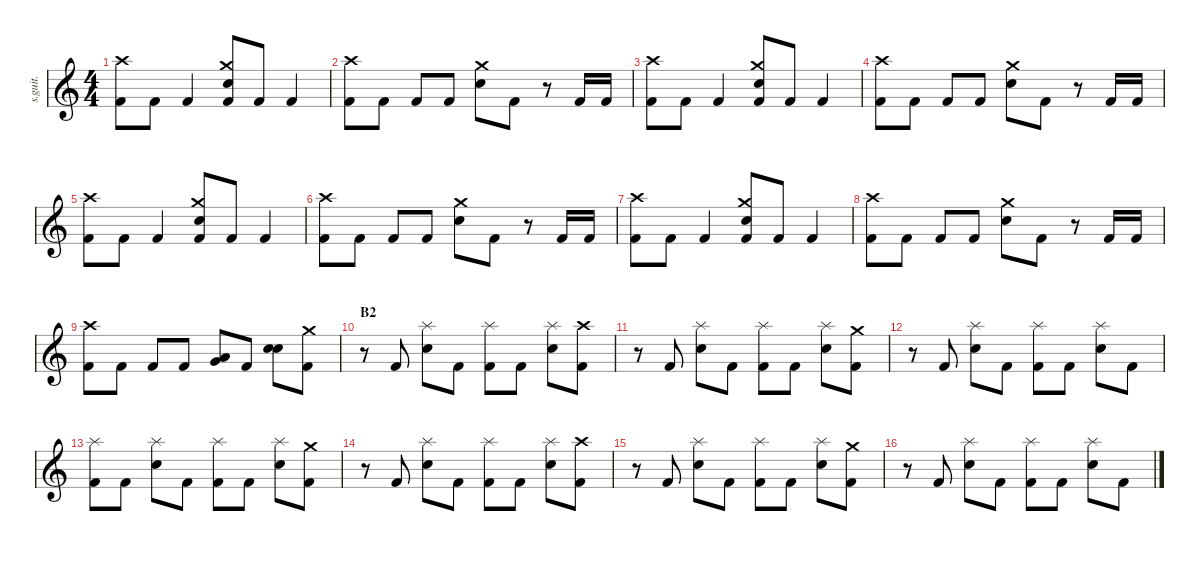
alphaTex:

\defaultSystemsLayout 4
\hideDynamics
\bracketExtendMode nobrackets
\track ("Batterie" "s.guit.") {instrument percussion}
\staff {score}
\articulation defaults
\ts (4 4)
\tempo (170 hide)
\clef g2
\ks c
("Crash high (hit)" "Kick (hit) 2").8{lyrics (0 "") lyrics (1 "") lyrics (2 "") lyrics (3 "") lyrics (4 "") dy f} "Kick (hit) 2".8{lyrics (0 "") lyrics (1 "") lyrics (2 "") lyrics (3 "") lyrics (4 "") dy fff} "Kick (hit) 2".4{lyrics (0 "") lyrics (1 "") lyrics (2 "") lyrics (3 "") lyrics (4 "")} ("Crash medium (hit)" "Electric Snare (hit)" "Kick (hit) 2").8{lyrics (0 "") lyrics (1 "") lyrics (2 "") lyrics (3 "") lyrics (4 "") dy f} "Kick (hit) 2".8{lyrics (0 "") lyrics (1 "") lyrics (2 "") lyrics (3 "") lyrics (4 "") dy fff} "Kick (hit) 2".4{lyrics (0 "") lyrics (1 "") lyrics (2 "") lyrics (3 "") lyrics (4 "")} |
("Crash high (hit)" "Kick (hit) 2").8{lyrics (0 "") lyrics (1 "") lyrics (2 "") lyrics (3 "") lyrics (4 "") dy f} "Kick (hit) 2".8{lyrics (0 "") lyrics (1 "") lyrics (2 "") lyrics (3 "") lyrics (4 "") dy fff} "Kick (hit) 2".8{lyrics (0 "") lyrics (1 "") lyrics (2 "") lyrics (3 "") lyrics (4 "")} "Kick (hit) 2".8{lyrics (0 "") lyrics (1 "") lyrics (2 "") lyrics (3 "") lyrics (4 "")} ("Crash medium (hit)" "Electric Snare (hit)").8{lyrics (0 "") lyrics (1 "") lyrics (2 "") lyrics (3 "") lyrics (4 "") dy f} "Kick (hit) 2".8{lyrics (0 "") lyrics (1 "") lyrics (2 "") lyrics (3 "") lyrics (4 "") dy fff} r.8 "Kick (hit) 2".16{lyrics (0 "") lyrics (1 "") lyrics (2 "") lyrics (3 "") lyrics (4 "")} "Kick (hit) 2".16{lyrics (0 "") lyrics (1 "") lyrics (2 "") lyrics (3 "") lyrics (4 "")} |
("Crash high (hit)" "Kick (hit) 2").8{lyrics (0 "") lyrics (1 "") lyrics (2 "") lyrics (3 "") lyrics (4 "") dy f} "Kick (hit) 2".8{lyrics (0 "") lyrics (1 "") lyrics (2 "") lyrics (3 "") lyrics (4 "") dy fff} "Kick (hit) 2".4{lyrics (0 "") lyrics (1 "") lyrics (2 "") lyrics (3 "") lyrics (4 "")} ("Crash medium (hit)" "Electric Snare (hit)" "Kick (hit) 2").8{lyrics (0 "") lyrics (1 "") lyrics (2 "") lyrics (3 "") lyrics (4 "") dy f} "Kick (hit) 2".8{lyrics (0 "") lyrics (1 "") lyrics (2 "") lyrics (3 "") lyrics (4 "") dy fff} "Kick (hit) 2".4{lyrics (0 "") lyrics (1 "") lyrics (2 "") lyrics (3 "") lyrics (4 "")} |
("Crash high (hit)" "Kick (hit) 2").8{lyrics (0 "") lyrics (1 "") lyrics (2 "") lyrics (3 "") lyrics (4 "") dy f} "Kick (hit) 2".8{lyrics (0 "") lyrics (1 "") lyrics (2 "") lyrics (3 "") lyrics (4 "") dy fff} "Kick (hit) 2".8{lyrics (0 "") lyrics (1 "") lyrics (2 "") lyrics (3 "") lyrics (4 "")} "Kick (hit) 2".8{lyrics (0 "") lyrics (1 "") lyrics (2 "") lyrics (3 "") lyrics (4 "")} ("Crash medium (hit)" "Electric Snare (hit)").8{lyrics (0 "") lyrics (1 "") lyrics (2 "") lyrics (3 "") lyrics (4 "") dy f} "Kick (hit) 2".8{lyrics (0 "") lyrics (1 "") lyrics (2 "") lyrics (3 "") lyrics (4 "") dy fff} r.8 "Kick (hit) 2".16{lyrics (0 "") lyrics (1 "") lyrics (2 "") lyrics (3 "") lyrics (4 "")} "Kick (hit) 2".16{lyrics (0 "") lyrics (1 "") lyrics (2 "") lyrics (3 "") lyrics (4 "")} |
("Crash high (hit)" "Kick (hit) 2").8{lyrics (0 "") lyrics (1 "") lyrics (2 "") lyrics (3 "") lyrics (4 "") dy f} "Kick (hit) 2".8{lyrics (0 "") lyrics (1 "") lyrics (2 "") lyrics (3 "") lyrics (4 "") dy fff} "Kick (hit) 2".4{lyrics (0 "") lyrics (1 "") lyrics (2 "") lyrics (3 "") lyrics (4 "")} ("Crash medium (hit)" "Electric Snare (hit)" "Kick (hit) 2").8{lyrics (0 "") lyrics (1 "") lyrics (2 "") lyrics (3 "") lyrics (4 "") dy f} "Kick (hit) 2".8{lyrics (0 "") lyrics (1 "") lyrics (2 "") lyrics (3 "") lyrics (4 "") dy fff} "Kick (hit) 2".4{lyrics (0 "") lyrics (1 "") lyrics (2 "") lyrics (3 "") lyrics (4 "")} |
("Crash high (hit)" "Kick (hit) 2").8{lyrics (0 "") lyrics (1 "") lyrics (2 "") lyrics (3 "") lyrics (4 "") dy f} "Kick (hit) 2".8{lyrics (0 "") lyrics (1 "") lyrics (2 "") lyrics (3 "") lyrics (4 "") dy fff} "Kick (hit) 2".8{lyrics (0 "") lyrics (1 "") lyrics (2 "") lyrics (3 "") lyrics (4 "")} "Kick (hit) 2".8{lyrics (0 "") lyrics (1 "") lyrics (2 "") lyrics (3 "") lyrics (4 "")} ("Crash medium (hit)" "Electric Snare (hit)").8{lyrics (0 "") lyrics (1 "") lyrics (2 "") lyrics (3 "") lyrics (4 "") dy f} "Kick (hit) 2".8{lyrics (0 "") lyrics (1 "") lyrics (2 "") lyrics (3 "") lyrics (4 "") dy fff} r.8 "Kick (hit) 2".16{lyrics (0 "") lyrics (1 "") lyrics (2 "") lyrics (3 "") lyrics (4 "")} "Kick (hit) 2".16{lyrics (0 "") lyrics (1 "") lyrics (2 "") lyrics (3 "") lyrics (4 "")} |
("Crash high (hit)" "Kick (hit) 2").8{lyrics (0 "") lyrics (1 "") lyrics (2 "") lyrics (3 "") lyrics (4 "") dy f} "Kick (hit) 2".8{lyrics (0 "") lyrics (1 "") lyrics (2 "") lyrics (3 "") lyrics (4 "") dy fff} "Kick (hit) 2".4{lyrics (0 "") lyrics (1 "") lyrics (2 "") lyrics (3 "") lyrics (4 "")} ("Crash medium (hit)" "Electric Snare (hit)" "Kick (hit) 2").8{lyrics (0 "") lyrics (1 "") lyrics (2 "") lyrics (3 "") lyrics (4 "") dy f} "Kick (hit) 2".8{lyrics (0 "") lyrics (1 "") lyrics (2 "") lyrics (3 "") lyrics (4 "") dy fff} "Kick (hit) 2".4{lyrics (0 "") lyrics (1 "") lyrics (2 "") lyrics (3 "") lyrics (4 "")} |
("Crash high (hit)" "Kick (hit) 2").8{lyrics (0 "") lyrics (1 "") lyrics (2 "") lyrics (3 "") lyrics (4 "") dy f} "Kick (hit) 2".8{lyrics (0 "") lyrics (1 "") lyrics (2 "") lyrics (3 "") lyrics (4 "") dy fff} "Kick (hit) 2".8{lyrics (0 "") lyrics (1 "") lyrics (2 "") lyrics (3 "") lyrics (4 "")} "Kick (hit) 2".8{lyrics (0 "") lyrics (1 "") lyrics (2 "") lyrics (3 "") lyrics (4 "")} ("Crash medium (hit)" "Electric Snare (hit)").8{lyrics (0 "") lyrics (1 "") lyrics (2 "") lyrics (3 "") lyrics (4 "") dy f} "Kick (hit) 2".8{lyrics (0 "") lyrics (1 "") lyrics (2 "") lyrics (3 "") lyrics (4 "") dy fff} r.8 "Kick (hit) 2".16{lyrics (0 "") lyrics (1 "") lyrics (2 "") lyrics (3 "") lyrics (4 "")} "Kick (hit) 2".16{lyrics (0 "") lyrics (1 "") lyrics (2 "") lyrics (3 "") lyrics (4 "")} |
("Crash high (hit)" "Kick (hit) 2").8{lyrics (0 "") lyrics (1 "") lyrics (2 "") lyrics (3 "") lyrics (4 "") dy f} "Kick (hit) 2".8{lyrics (0 "") lyrics (1 "") lyrics (2 "") lyrics (3 "") lyrics (4 "") dy fff} "Kick (hit) 2".8{lyrics (0 "") lyrics (1 "") lyrics (2 "") lyrics (3 "") lyrics (4 "")} "Kick (hit) 2".8{lyrics (0 "") lyrics (1 "") lyrics (2 "") lyrics (3 "") lyrics (4 "")} ("Very Low Tom (hit)" "Low Floor Tom (hit)").8{lyrics (0 "") lyrics (1 "") lyrics (2 "") lyrics (3 "") lyrics (4 "")} "Kick (hit) 2".8{lyrics (0 "") lyrics (1 "") lyrics (2 "") lyrics (3 "") lyrics (4 "")} ("Electric Snare (hit)" "Electric Snare (hit)").8{lyrics (0 "") lyrics (1 "") lyrics (2 "") lyrics (3 "") lyrics (4 "")} ("Crash medium (hit)" "Kick (hit) 2").8{lyrics (0 "") lyrics (1 "") lyrics (2 "") lyrics (3 "") lyrics (4 "")} |
\section ("" "B2")
r.8 "Kick (hit) 2".8{lyrics (0 "") lyrics (1 "") lyrics (2 "") lyrics (3 "") lyrics (4 "")} ("Splash (hit)" "Electric Snare (hit)").8{lyrics (0 "") lyrics (1 "") lyrics (2 "") lyrics (3 "") lyrics (4 "") dy f} "Kick (hit) 2".8{lyrics (0 "") lyrics (1 "") lyrics (2 "") lyrics (3 "") lyrics (4 "") dy fff} ("Splash (hit)" "Kick (hit) 2").8{lyrics (0 "") lyrics (1 "") lyrics (2 "") lyrics (3 "") lyrics (4 "") dy f} "Kick (hit) 2".8{lyrics (0 "") lyrics (1 "") lyrics (2 "") lyrics (3 "") lyrics (4 "") dy fff} ("Splash (hit)" "Electric Snare (hit)").8{lyrics (0 "") lyrics (1 "") lyrics (2 "") lyrics (3 "") lyrics (4 "") dy f} ("Crash high (hit)" "Kick (hit) 2").8{lyrics (0 "") lyrics (1 "") lyrics (2 "") lyrics (3 "") lyrics (4 "")} |
r.8 "Kick (hit) 2".8{lyrics (0 "") lyrics (1 "") lyrics (2 "") lyrics (3 "") lyrics (4 "") dy fff} ("Splash (hit)" "Electric Snare (hit)").8{lyrics (0 "") lyrics (1 "") lyrics (2 "") lyrics (3 "") lyrics (4 "") dy f} "Kick (hit) 2".8{lyrics (0 "") lyrics (1 "") lyrics (2 "") lyrics (3 "") lyrics (4 "") dy fff} ("Splash (hit)" "Kick (hit) 2").8{lyrics (0 "") lyrics (1 "") lyrics (2 "") lyrics (3 "") lyrics (4 "") dy f} "Kick (hit) 2".8{lyrics (0 "") lyrics (1 "") lyrics (2 "") lyrics (3 "") lyrics (4 "") dy fff} ("Splash (hit)" "Electric Snare (hit)").8{lyrics (0 "") lyrics (1 "") lyrics (2 "") lyrics (3 "") lyrics (4 "") dy f} ("Crash medium (hit)" "Kick (hit) 2").8{lyrics (0 "") lyrics (1 "") lyrics (2 "") lyrics (3 "") lyrics (4 "")} |
r.8 "Kick (hit) 2".8{lyrics (0 "") lyrics (1 "") lyrics (2 "") lyrics (3 "") lyrics (4 "") dy fff} ("Splash (hit)" "Electric Snare (hit)").8{lyrics (0 "") lyrics (1 "") lyrics (2 "") lyrics (3 "") lyrics (4 "") dy f} "Kick (hit) 2".8{lyrics (0 "") lyrics (1 "") lyrics (2 "") lyrics (3 "") lyrics (4 "") dy fff} ("Splash (hit)" "Kick (hit) 2").8{lyrics (0 "") lyrics (1 "") lyrics (2 "") lyrics (3 "") lyrics (4 "") dy f} "Kick (hit) 2".8{lyrics (0 "") lyrics (1 "") lyrics (2 "") lyrics (3 "") lyrics (4 "") dy fff} ("Splash (hit)" "Electric Snare (hit)").8{lyrics (0 "") lyrics (1 "") lyrics (2 "") lyrics (3 "") lyrics (4 "") dy f} "Kick (hit) 2".8{lyrics (0 "") lyrics (1 "") lyrics (2 "") lyrics (3 "") lyrics (4 "") dy fff} |
("Splash (hit)" "Kick (hit) 2").8{lyrics (0 "") lyrics (1 "") lyrics (2 "") lyrics (3 "") lyrics (4 "") dy f} "Kick (hit) 2".8{lyrics (0 "") lyrics (1 "") lyrics (2 "") lyrics (3 "") lyrics (4 "") dy fff} ("Splash (hit)" "Electric Snare (hit)").8{lyrics (0 "") lyrics (1 "") lyrics (2 "") lyrics (3 "") lyrics (4 "") dy f} "Kick (hit) 2".8{lyrics (0 "") lyrics (1 "") lyrics (2 "") lyrics (3 "") lyrics (4 "") dy fff} ("Splash (hit)" "Kick (hit) 2").8{lyrics (0 "") lyrics (1 "") lyrics (2 "") lyrics (3 "") lyrics (4 "") dy f} "Kick (hit) 2".8{lyrics (0 "") lyrics (1 "") lyrics (2 "") lyrics (3 "") lyrics (4 "") dy fff} ("Splash (hit)" "Electric Snare (hit)").8{lyrics (0 "") lyrics (1 "") lyrics (2 "") lyrics (3 "") lyrics (4 "") dy f} ("Crash medium (hit)" "Kick (hit) 2").8{lyrics (0 "") lyrics (1 "") lyrics (2 "") lyrics (3 "") lyrics (4 "")} |
r.8 "Kick (hit) 2".8{lyrics (0 "") lyrics (1 "") lyrics (2 "") lyrics (3 "") lyrics (4 "") dy fff} ("Splash (hit)" "Electric Snare (hit)").8{lyrics (0 "") lyrics (1 "") lyrics (2 "") lyrics (3 "") lyrics (4 "") dy f} "Kick (hit) 2".8{lyrics (0 "") lyrics (1 "") lyrics (2 "") lyrics (3 "") lyrics (4 "") dy fff} ("Splash (hit)" "Kick (hit) 2").8{lyrics (0 "") lyrics (1 "") lyrics (2 "") lyrics (3 "") lyrics (4 "") dy f} "Kick (hit) 2".8{lyrics (0 "") lyrics (1 "") lyrics (2 "") lyrics (3 "") lyrics (4 "") dy fff} ("Splash (hit)" "Electric Snare (hit)").8{lyrics (0 "") lyrics (1 "") lyrics (2 "") lyrics (3 "") lyrics (4 "") dy f} ("Crash high (hit)" "Kick (hit) 2").8{lyrics (0 "") lyrics (1 "") lyrics (2 "") lyrics (3 "") lyrics (4 "")} |
r.8 "Kick (hit) 2".8{lyrics (0 "") lyrics (1 "") lyrics (2 "") lyrics (3 "") lyrics (4 "") dy fff} ("Splash (hit)" "Electric Snare (hit)").8{lyrics (0 "") lyrics (1 "") lyrics (2 "") lyrics (3 "") lyrics (4 "") dy f} "Kick (hit) 2".8{lyrics (0 "") lyrics (1 "") lyrics (2 "") lyrics (3 "") lyrics (4 "") dy fff} ("Splash (hit)" "Kick (hit) 2").8{lyrics (0 "") lyrics (1 "") lyrics (2 "") lyrics (3 "") lyrics (4 "") dy f} "Kick (hit) 2".8{lyrics (0 "") lyrics (1 "") lyrics (2 "") lyrics (3 "") lyrics (4 "") dy fff} ("Splash (hit)" "Electric Snare (hit)").8{lyrics (0 "") lyrics (1 "") lyrics (2 "") lyrics (3 "") lyrics (4 "") dy f} ("Crash medium (hit)" "Kick (hit) 2").8{lyrics (0 "") lyrics (1 "") lyrics (2 "") lyrics (3 "") lyrics (4 "")} |
r.8 "Kick (hit) 2".8{lyrics (0 "") lyrics (1 "") lyrics (2 "") lyrics (3 "") lyrics (4 "") dy fff} ("Splash (hit)" "Electric Snare (hit)").8{lyrics (0 "") lyrics (1 "") lyrics (2 "") lyrics (3 "") lyrics (4 "") dy f} "Kick (hit) 2".8{lyrics (0 "") lyrics (1 "") lyrics (2 "") lyrics (3 "") lyrics (4 "") dy fff} ("Splash (hit)" "Kick (hit) 2").8{lyrics (0 "") lyrics (1 "") lyrics (2 "") lyrics (3 "") lyrics (4 "") dy f} "Kick (hit) 2".8{lyrics (0 "") lyrics (1 "") lyrics (2 "") lyrics (3 "") lyrics (4 "") dy fff} ("Splash (hit)" "Electric Snare (hit)").8{lyrics (0 "") lyrics (1 "") lyrics (2 "") lyrics (3 "") lyrics (4 "") dy f} "Kick (hit) 2".8{lyrics (0 "") lyrics (1 "") lyrics (2 "") lyrics (3 "") lyrics (4 "") dy fff}
